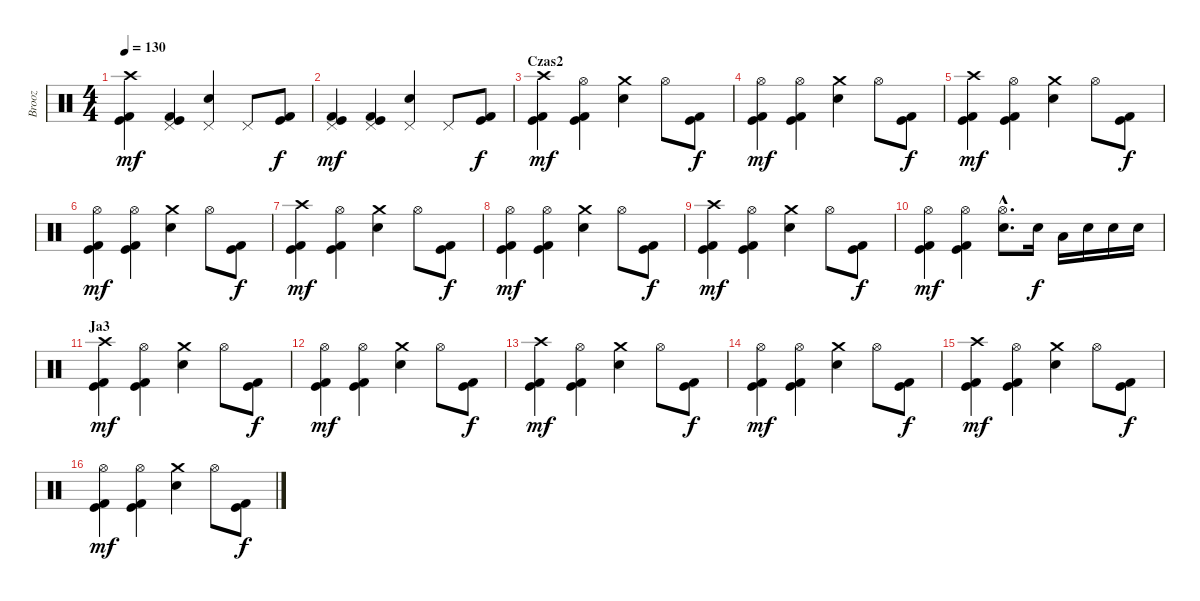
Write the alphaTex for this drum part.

\track ("Brooz" "Brooz") {instrument percussion}
\staff {score}
\articulation defaults
\ts (4 4)
\tempo 130
\clef neutral
\ks c
("Kick (hit) 2" "Kick (hit)" "Crash high (hit)").4{dy mf} ("Pedal Hi-Hat (hit)" "Kick (hit) 2" "Kick (hit)").4 ("Pedal Hi-Hat (hit)" "Snare (hit) 2").4 "Pedal Hi-Hat (hit)".8 ("Kick (hit) 2" "Kick (hit)").8{dy f} |
("Kick (hit) 2" "Kick (hit)" "Pedal Hi-Hat (hit)").4{dy mf} ("Pedal Hi-Hat (hit)" "Kick (hit) 2" "Kick (hit)").4 ("Snare (hit) 2" "Pedal Hi-Hat (hit)").4 "Pedal Hi-Hat (hit)".8 ("Kick (hit) 2" "Kick (hit)").8{dy f} |
\section ("" "Czas2")
("Kick (hit) 2" "Kick (hit)" "Crash high (hit)").4{dy mf} ("Hi-Hat (open)" "Kick (hit) 2" "Kick (hit)").4 ("Crash medium (hit)" "Snare (hit) 2").4 "Hi-Hat (open)".8 ("Kick (hit) 2" "Kick (hit)").8{dy f} |
("Kick (hit) 2" "Kick (hit)" "Hi-Hat (open)").4{dy mf} ("Hi-Hat (open)" "Kick (hit) 2" "Kick (hit)").4 ("Snare (hit) 2" "Crash medium (hit)").4 "Hi-Hat (open)".8 ("Kick (hit) 2" "Kick (hit)").8{dy f} |
("Kick (hit) 2" "Kick (hit)" "Crash high (hit)").4{dy mf} ("Hi-Hat (open)" "Kick (hit) 2" "Kick (hit)").4 ("Crash medium (hit)" "Snare (hit) 2").4 "Hi-Hat (open)".8 ("Kick (hit) 2" "Kick (hit)").8{dy f} |
("Kick (hit) 2" "Kick (hit)" "Hi-Hat (open)").4{dy mf} ("Hi-Hat (open)" "Kick (hit) 2" "Kick (hit)").4 ("Snare (hit) 2" "Crash medium (hit)").4 "Hi-Hat (open)".8 ("Kick (hit) 2" "Kick (hit)").8{dy f} |
("Kick (hit) 2" "Kick (hit)" "Crash high (hit)").4{dy mf} ("Hi-Hat (open)" "Kick (hit) 2" "Kick (hit)").4 ("Crash medium (hit)" "Snare (hit) 2").4 "Hi-Hat (open)".8 ("Kick (hit) 2" "Kick (hit)").8{dy f} |
("Kick (hit) 2" "Kick (hit)" "Hi-Hat (open)").4{dy mf} ("Hi-Hat (open)" "Kick (hit) 2" "Kick (hit)").4 ("Snare (hit) 2" "Crash medium (hit)").4 "Hi-Hat (open)".8 ("Kick (hit) 2" "Kick (hit)").8{dy f} |
("Kick (hit) 2" "Kick (hit)" "Crash high (hit)").4{dy mf} ("Hi-Hat (open)" "Kick (hit) 2" "Kick (hit)").4 ("Crash medium (hit)" "Snare (hit) 2").4 "Hi-Hat (open)".8 ("Kick (hit) 2" "Kick (hit)").8{dy f} |
("Kick (hit) 2" "Kick (hit)" "Hi-Hat (open)").4{dy mf} ("Hi-Hat (open)" "Kick (hit) 2" "Kick (hit)").4 ("Snare (hit) 2"{hac} "Hi-Hat (open)"{hac}).8{d} "Snare (hit) 2".16{dy f} "Low Tom (hit)".16 "Snare (hit) 2".16 "Snare (hit) 2".16 "Snare (hit) 2".16 |
\section ("" "Ja3")
("Kick (hit) 2" "Kick (hit)" "Crash high (hit)").4{dy mf} ("Hi-Hat (open)" "Kick (hit) 2" "Kick (hit)").4 ("Crash medium (hit)" "Snare (hit) 2").4 "Hi-Hat (open)".8 ("Kick (hit) 2" "Kick (hit)").8{dy f} |
("Kick (hit) 2" "Kick (hit)" "Hi-Hat (open)").4{dy mf} ("Hi-Hat (open)" "Kick (hit) 2" "Kick (hit)").4 ("Snare (hit) 2" "Crash medium (hit)").4 "Hi-Hat (open)".8 ("Kick (hit) 2" "Kick (hit)").8{dy f} |
("Kick (hit) 2" "Kick (hit)" "Crash high (hit)").4{dy mf} ("Hi-Hat (open)" "Kick (hit) 2" "Kick (hit)").4 ("Crash medium (hit)" "Snare (hit) 2").4 "Hi-Hat (open)".8 ("Kick (hit) 2" "Kick (hit)").8{dy f} |
("Kick (hit) 2" "Kick (hit)" "Hi-Hat (open)").4{dy mf} ("Hi-Hat (open)" "Kick (hit) 2" "Kick (hit)").4 ("Snare (hit) 2" "Crash medium (hit)").4 "Hi-Hat (open)".8 ("Kick (hit) 2" "Kick (hit)").8{dy f} |
("Kick (hit) 2" "Kick (hit)" "Crash high (hit)").4{dy mf} ("Hi-Hat (open)" "Kick (hit) 2" "Kick (hit)").4 ("Crash medium (hit)" "Snare (hit) 2").4 "Hi-Hat (open)".8 ("Kick (hit) 2" "Kick (hit)").8{dy f} |
("Kick (hit) 2" "Kick (hit)" "Hi-Hat (open)").4{dy mf} ("Hi-Hat (open)" "Kick (hit) 2" "Kick (hit)").4 ("Snare (hit) 2" "Crash medium (hit)").4 "Hi-Hat (open)".8 ("Kick (hit) 2" "Kick (hit)").8{dy f}
